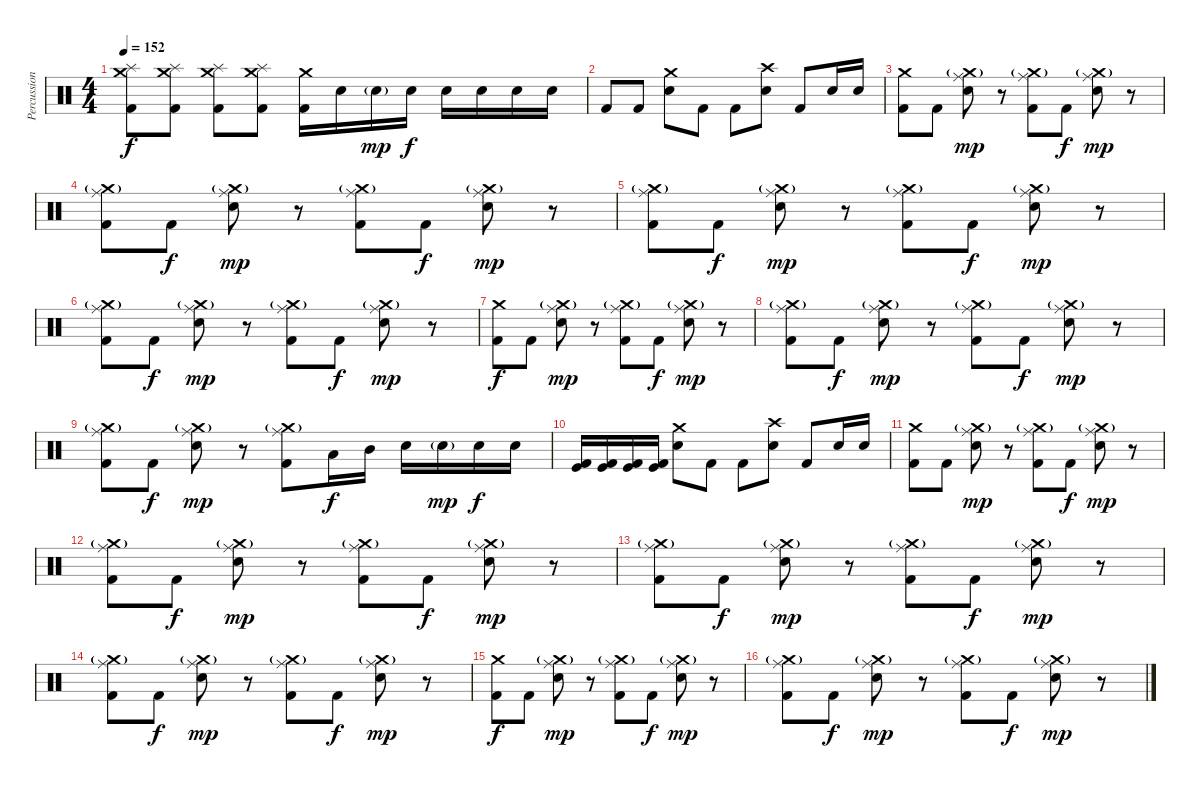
\track ("Percussion" "Percussion") {instrument percussion}
\staff {score}
\articulation defaults
\ts (4 4)
\tempo 152
\clef neutral
\ks c
("Splash (hit)" "Crash medium (hit)" "Kick (hit) 2").8{dy f} ("Splash (hit)" "Crash medium (hit)" "Kick (hit) 2").8 ("Splash (hit)" "Crash medium (hit)" "Kick (hit) 2").8 ("Splash (hit)" "Crash medium (hit)" "Kick (hit) 2").8 ("Crash medium (hit)" "Kick (hit) 2").16 "Electric Snare (hit)".16 "Electric Snare (hit)"{g}.16{dy mp} "Electric Snare (hit)".16{dy f} "Electric Snare (hit)".16 "Electric Snare (hit)".16 "Electric Snare (hit)".16 "Electric Snare (hit)".16 |
"Kick (hit) 2".8 "Kick (hit) 2".8 ("Crash medium (hit)" "Electric Snare (hit)").8 "Kick (hit) 2".8 "Kick (hit) 2".8 ("Crash high (hit)" "Electric Snare (hit)").8 "Kick (hit) 2".8 "Electric Snare (hit)".16 "Electric Snare (hit)".16 |
("Crash medium (hit)" "Kick (hit) 2").8 "Kick (hit) 2".8 ("Crash medium (hit)"{g} "Ride (middle)" "Electric Snare (hit)").8{dy mp} r.8 ("Crash medium (hit)"{g} "Ride (middle)" "Kick (hit) 2").8 "Kick (hit) 2".8{dy f} ("Crash medium (hit)"{g} "Ride (middle)" "Electric Snare (hit)").8{dy mp} r.8 |
("Crash medium (hit)"{g} "Ride (middle)" "Kick (hit) 2").8 "Kick (hit) 2".8{dy f} ("Crash medium (hit)"{g} "Ride (middle)" "Electric Snare (hit)").8{dy mp} r.8 ("Crash medium (hit)"{g} "Ride (middle)" "Kick (hit) 2").8 "Kick (hit) 2".8{dy f} ("Crash medium (hit)"{g} "Ride (middle)" "Electric Snare (hit)").8{dy mp} r.8 |
("Crash medium (hit)"{g} "Ride (middle)" "Kick (hit) 2").8 "Kick (hit) 2".8{dy f} ("Crash medium (hit)"{g} "Ride (middle)" "Electric Snare (hit)").8{dy mp} r.8 ("Crash medium (hit)"{g} "Ride (middle)" "Kick (hit) 2").8 "Kick (hit) 2".8{dy f} ("Crash medium (hit)"{g} "Ride (middle)" "Electric Snare (hit)").8{dy mp} r.8 |
("Crash medium (hit)"{g} "Ride (middle)" "Kick (hit) 2").8 "Kick (hit) 2".8{dy f} ("Crash medium (hit)"{g} "Ride (middle)" "Electric Snare (hit)").8{dy mp} r.8 ("Crash medium (hit)"{g} "Ride (middle)" "Kick (hit) 2").8 "Kick (hit) 2".8{dy f} ("Crash medium (hit)"{g} "Ride (middle)" "Electric Snare (hit)").8{dy mp} r.8 |
("Crash medium (hit)" "Kick (hit) 2").8{dy f} "Kick (hit) 2".8 ("Crash medium (hit)"{g} "Ride (middle)" "Electric Snare (hit)").8{dy mp} r.8 ("Crash medium (hit)"{g} "Ride (middle)" "Kick (hit) 2").8 "Kick (hit) 2".8{dy f} ("Crash medium (hit)"{g} "Ride (middle)" "Electric Snare (hit)").8{dy mp} r.8 |
("Crash medium (hit)"{g} "Ride (middle)" "Kick (hit) 2").8 "Kick (hit) 2".8{dy f} ("Crash medium (hit)"{g} "Ride (middle)" "Electric Snare (hit)").8{dy mp} r.8 ("Crash medium (hit)"{g} "Ride (middle)" "Kick (hit) 2").8 "Kick (hit) 2".8{dy f} ("Crash medium (hit)"{g} "Ride (middle)" "Electric Snare (hit)").8{dy mp} r.8 |
("Crash medium (hit)"{g} "Ride (middle)" "Kick (hit) 2").8 "Kick (hit) 2".8{dy f} ("Crash medium (hit)"{g} "Ride (middle)" "Electric Snare (hit)").8{dy mp} r.8 ("Crash medium (hit)"{g} "Ride (middle)" "Kick (hit) 2").8 "Low Tom (hit)".16{dy f} "Mid Tom (hit)".16 "Electric Snare (hit)".16 "Electric Snare (hit)"{g}.16{dy mp} "Electric Snare (hit)".16{dy f} "Electric Snare (hit)".16 |
("Kick (hit)" "Kick (hit) 2").16 ("Kick (hit)" "Kick (hit) 2").16 ("Kick (hit)" "Kick (hit) 2").16 ("Kick (hit)" "Kick (hit) 2").16 ("Crash medium (hit)" "Electric Snare (hit)").8 "Kick (hit) 2".8 "Kick (hit) 2".8 ("Crash high (hit)" "Electric Snare (hit)").8 "Kick (hit) 2".8 "Electric Snare (hit)".16 "Electric Snare (hit)".16 |
("Crash medium (hit)" "Kick (hit) 2").8 "Kick (hit) 2".8 ("Crash medium (hit)"{g} "Ride (middle)" "Electric Snare (hit)").8{dy mp} r.8 ("Crash medium (hit)"{g} "Ride (middle)" "Kick (hit) 2").8 "Kick (hit) 2".8{dy f} ("Crash medium (hit)"{g} "Ride (middle)" "Electric Snare (hit)").8{dy mp} r.8 |
("Crash medium (hit)"{g} "Ride (middle)" "Kick (hit) 2").8 "Kick (hit) 2".8{dy f} ("Crash medium (hit)"{g} "Ride (middle)" "Electric Snare (hit)").8{dy mp} r.8 ("Crash medium (hit)"{g} "Ride (middle)" "Kick (hit) 2").8 "Kick (hit) 2".8{dy f} ("Crash medium (hit)"{g} "Ride (middle)" "Electric Snare (hit)").8{dy mp} r.8 |
("Crash medium (hit)"{g} "Ride (middle)" "Kick (hit) 2").8 "Kick (hit) 2".8{dy f} ("Crash medium (hit)"{g} "Ride (middle)" "Electric Snare (hit)").8{dy mp} r.8 ("Crash medium (hit)"{g} "Ride (middle)" "Kick (hit) 2").8 "Kick (hit) 2".8{dy f} ("Crash medium (hit)"{g} "Ride (middle)" "Electric Snare (hit)").8{dy mp} r.8 |
("Crash medium (hit)"{g} "Ride (middle)" "Kick (hit) 2").8 "Kick (hit) 2".8{dy f} ("Crash medium (hit)"{g} "Ride (middle)" "Electric Snare (hit)").8{dy mp} r.8 ("Crash medium (hit)"{g} "Ride (middle)" "Kick (hit) 2").8 "Kick (hit) 2".8{dy f} ("Crash medium (hit)"{g} "Ride (middle)" "Electric Snare (hit)").8{dy mp} r.8 |
("Crash medium (hit)" "Kick (hit) 2").8{dy f} "Kick (hit) 2".8 ("Crash medium (hit)"{g} "Ride (middle)" "Electric Snare (hit)").8{dy mp} r.8 ("Crash medium (hit)"{g} "Ride (middle)" "Kick (hit) 2").8 "Kick (hit) 2".8{dy f} ("Crash medium (hit)"{g} "Ride (middle)" "Electric Snare (hit)").8{dy mp} r.8 |
("Crash medium (hit)"{g} "Ride (middle)" "Kick (hit) 2").8 "Kick (hit) 2".8{dy f} ("Crash medium (hit)"{g} "Ride (middle)" "Electric Snare (hit)").8{dy mp} r.8 ("Crash medium (hit)"{g} "Ride (middle)" "Kick (hit) 2").8 "Kick (hit) 2".8{dy f} ("Crash medium (hit)"{g} "Ride (middle)" "Electric Snare (hit)").8{dy mp} r.8
